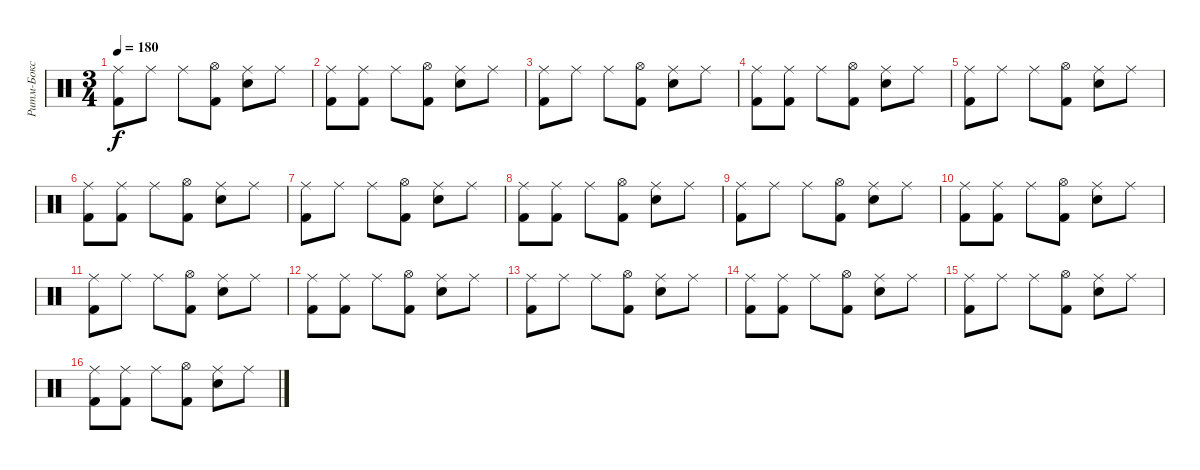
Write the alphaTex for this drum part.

\track ("Ритм-Бокс" "Ритм-Бокс") {instrument percussion}
\staff {score}
\articulation defaults
\ts (3 4)
\tempo 180
\clef neutral
\ks c
("Ride (middle)" "Kick (hit) 2").8{dy f} "Ride (middle)".8 "Ride (middle)".8 ("Hi-Hat (open)" "Kick (hit) 2").8 ("Ride (middle)" "Snare (hit) 2").8 "Ride (middle)".8 |
("Ride (middle)" "Kick (hit) 2").8 ("Ride (middle)" "Kick (hit) 2").8 "Ride (middle)".8 ("Hi-Hat (open)" "Kick (hit) 2").8 ("Ride (middle)" "Snare (hit) 2").8 "Ride (middle)".8 |
("Ride (middle)" "Kick (hit) 2").8 "Ride (middle)".8 "Ride (middle)".8 ("Hi-Hat (open)" "Kick (hit) 2").8 ("Ride (middle)" "Snare (hit) 2").8 "Ride (middle)".8 |
("Ride (middle)" "Kick (hit) 2").8 ("Ride (middle)" "Kick (hit) 2").8 "Ride (middle)".8 ("Hi-Hat (open)" "Kick (hit) 2").8 ("Ride (middle)" "Snare (hit) 2").8 "Ride (middle)".8 |
("Ride (middle)" "Kick (hit) 2").8 "Ride (middle)".8 "Ride (middle)".8 ("Hi-Hat (open)" "Kick (hit) 2").8 ("Ride (middle)" "Snare (hit) 2").8 "Ride (middle)".8 |
("Ride (middle)" "Kick (hit) 2").8 ("Ride (middle)" "Kick (hit) 2").8 "Ride (middle)".8 ("Hi-Hat (open)" "Kick (hit) 2").8 ("Ride (middle)" "Snare (hit) 2").8 "Ride (middle)".8 |
("Ride (middle)" "Kick (hit) 2").8 "Ride (middle)".8 "Ride (middle)".8 ("Hi-Hat (open)" "Kick (hit) 2").8 ("Ride (middle)" "Snare (hit) 2").8 "Ride (middle)".8 |
("Ride (middle)" "Kick (hit) 2").8 ("Ride (middle)" "Kick (hit) 2").8 "Ride (middle)".8 ("Hi-Hat (open)" "Kick (hit) 2").8 ("Ride (middle)" "Snare (hit) 2").8 "Ride (middle)".8 |
("Ride (middle)" "Kick (hit) 2").8 "Ride (middle)".8 "Ride (middle)".8 ("Hi-Hat (open)" "Kick (hit) 2").8 ("Ride (middle)" "Snare (hit) 2").8 "Ride (middle)".8 |
("Ride (middle)" "Kick (hit) 2").8 ("Ride (middle)" "Kick (hit) 2").8 "Ride (middle)".8 ("Hi-Hat (open)" "Kick (hit) 2").8 ("Ride (middle)" "Snare (hit) 2").8 "Ride (middle)".8 |
("Ride (middle)" "Kick (hit) 2").8 "Ride (middle)".8 "Ride (middle)".8 ("Hi-Hat (open)" "Kick (hit) 2").8 ("Ride (middle)" "Snare (hit) 2").8 "Ride (middle)".8 |
("Ride (middle)" "Kick (hit) 2").8 ("Ride (middle)" "Kick (hit) 2").8 "Ride (middle)".8 ("Hi-Hat (open)" "Kick (hit) 2").8 ("Ride (middle)" "Snare (hit) 2").8 "Ride (middle)".8 |
("Ride (middle)" "Kick (hit) 2").8 "Ride (middle)".8 "Ride (middle)".8 ("Hi-Hat (open)" "Kick (hit) 2").8 ("Ride (middle)" "Snare (hit) 2").8 "Ride (middle)".8 |
("Ride (middle)" "Kick (hit) 2").8 ("Ride (middle)" "Kick (hit) 2").8 "Ride (middle)".8 ("Hi-Hat (open)" "Kick (hit) 2").8 ("Ride (middle)" "Snare (hit) 2").8 "Ride (middle)".8 |
("Ride (middle)" "Kick (hit) 2").8 "Ride (middle)".8 "Ride (middle)".8 ("Hi-Hat (open)" "Kick (hit) 2").8 ("Ride (middle)" "Snare (hit) 2").8 "Ride (middle)".8 |
("Ride (middle)" "Kick (hit) 2").8 ("Ride (middle)" "Kick (hit) 2").8 "Ride (middle)".8 ("Hi-Hat (open)" "Kick (hit) 2").8 ("Ride (middle)" "Snare (hit) 2").8 "Ride (middle)".8
